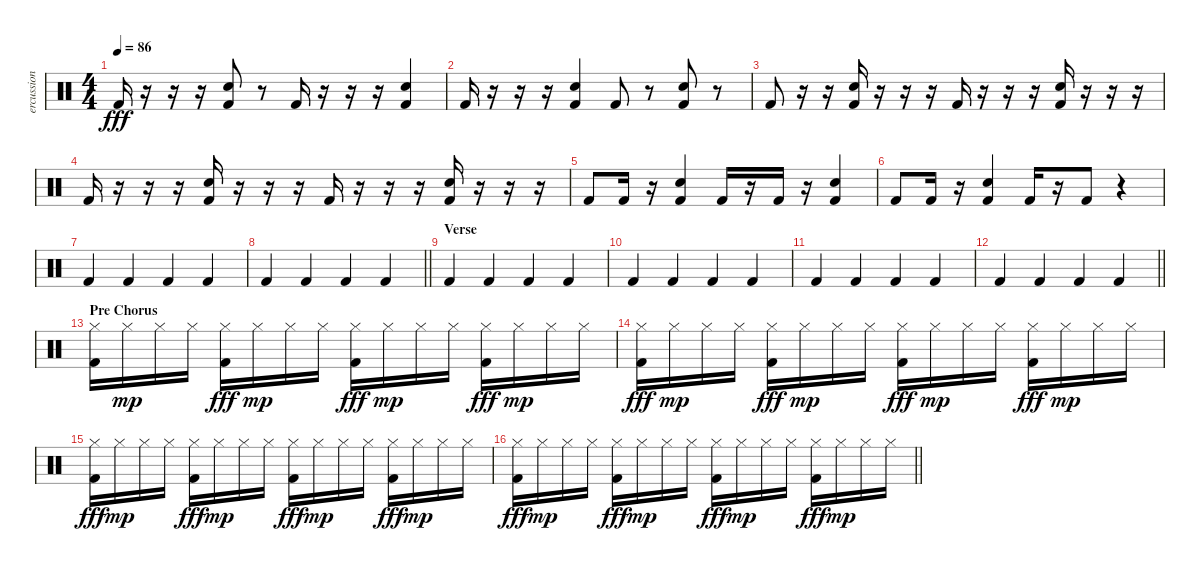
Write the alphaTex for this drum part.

\track ("ercussion" "ercussion") {instrument percussion}
\staff {score}
\articulation defaults
\ts (4 4)
\tempo 86
\clef neutral
\ks c "Kick (hit) 2".16{dy fff}
r.16 r.16 r.16 ("Snare (hit) 2" "Kick (hit) 2").8 r.8 "Kick (hit) 2".16 r.16 r.16 r.16 ("Snare (hit) 2" "Kick (hit) 2").4 |
"Kick (hit) 2".16 r.16 r.16 r.16 ("Snare (hit) 2" "Kick (hit) 2").4 "Kick (hit) 2".8 r.8 ("Snare (hit) 2" "Kick (hit) 2").8 r.8 |
"Kick (hit) 2".8 r.16 r.16 ("Snare (hit) 2" "Kick (hit) 2").16 r.16 r.16 r.16 "Kick (hit) 2".16 r.16 r.16 r.16 ("Snare (hit) 2" "Kick (hit) 2").16 r.16 r.16 r.16 |
"Kick (hit) 2".16 r.16 r.16 r.16 ("Snare (hit) 2" "Kick (hit) 2").16 r.16 r.16 r.16 "Kick (hit) 2".16 r.16 r.16 r.16 ("Snare (hit) 2" "Kick (hit) 2").16 r.16 r.16 r.16 |
"Kick (hit) 2".8 "Kick (hit) 2".16 r.16 ("Snare (hit) 2" "Kick (hit) 2").4 "Kick (hit) 2".16 r.16 "Kick (hit) 2".16 r.16 ("Snare (hit) 2" "Kick (hit) 2").4 |
"Kick (hit) 2".8 "Kick (hit) 2".16 r.16 ("Snare (hit) 2" "Kick (hit) 2").4 "Kick (hit) 2".16 r.16 "Kick (hit) 2".8 r.4 |
"Kick (hit) 2".4 "Kick (hit) 2".4 "Kick (hit) 2".4 "Kick (hit) 2".4 |
\barLineRight lightlight "Kick (hit) 2".4 "Kick (hit) 2".4 "Kick (hit) 2".4 "Kick (hit) 2".4
|
\section ("" "Verse")
"Kick (hit) 2".4 "Kick (hit) 2".4 "Kick (hit) 2".4 "Kick (hit) 2".4 |
"Kick (hit) 2".4 "Kick (hit) 2".4 "Kick (hit) 2".4 "Kick (hit) 2".4 |
"Kick (hit) 2".4 "Kick (hit) 2".4 "Kick (hit) 2".4 "Kick (hit) 2".4 |
\barLineRight lightlight "Kick (hit) 2".4 "Kick (hit) 2".4 "Kick (hit) 2".4 "Kick (hit) 2".4
|
\section ("" "Pre Chorus")
("Hi-Hat (closed)" "Kick (hit) 2").16 "Hi-Hat (closed)".16{dy mp} "Hi-Hat (closed)".16 "Hi-Hat (closed)".16 ("Hi-Hat (closed)" "Kick (hit) 2").16{dy fff} "Hi-Hat (closed)".16{dy mp} "Hi-Hat (closed)".16 "Hi-Hat (closed)".16 ("Hi-Hat (closed)" "Kick (hit) 2").16{dy fff} "Hi-Hat (closed)".16{dy mp} "Hi-Hat (closed)".16 "Hi-Hat (closed)".16 ("Hi-Hat (closed)" "Kick (hit) 2").16{dy fff} "Hi-Hat (closed)".16{dy mp} "Hi-Hat (closed)".16 "Hi-Hat (closed)".16 |
("Hi-Hat (closed)" "Kick (hit) 2").16{dy fff} "Hi-Hat (closed)".16{dy mp} "Hi-Hat (closed)".16 "Hi-Hat (closed)".16 ("Hi-Hat (closed)" "Kick (hit) 2").16{dy fff} "Hi-Hat (closed)".16{dy mp} "Hi-Hat (closed)".16 "Hi-Hat (closed)".16 ("Hi-Hat (closed)" "Kick (hit) 2").16{dy fff} "Hi-Hat (closed)".16{dy mp} "Hi-Hat (closed)".16 "Hi-Hat (closed)".16 ("Hi-Hat (closed)" "Kick (hit) 2").16{dy fff} "Hi-Hat (closed)".16{dy mp} "Hi-Hat (closed)".16 "Hi-Hat (closed)".16 |
("Hi-Hat (closed)" "Kick (hit) 2").16{dy fff} "Hi-Hat (closed)".16{dy mp} "Hi-Hat (closed)".16 "Hi-Hat (closed)".16 ("Hi-Hat (closed)" "Kick (hit) 2").16{dy fff} "Hi-Hat (closed)".16{dy mp} "Hi-Hat (closed)".16 "Hi-Hat (closed)".16 ("Hi-Hat (closed)" "Kick (hit) 2").16{dy fff} "Hi-Hat (closed)".16{dy mp} "Hi-Hat (closed)".16 "Hi-Hat (closed)".16 ("Hi-Hat (closed)" "Kick (hit) 2").16{dy fff} "Hi-Hat (closed)".16{dy mp} "Hi-Hat (closed)".16 "Hi-Hat (closed)".16 |
\barLineRight lightlight
("Hi-Hat (closed)" "Kick (hit) 2").16{dy fff} "Hi-Hat (closed)".16{dy mp} "Hi-Hat (closed)".16 "Hi-Hat (closed)".16 ("Hi-Hat (closed)" "Kick (hit) 2").16{dy fff} "Hi-Hat (closed)".16{dy mp} "Hi-Hat (closed)".16 "Hi-Hat (closed)".16 ("Hi-Hat (closed)" "Kick (hit) 2").16{dy fff} "Hi-Hat (closed)".16{dy mp} "Hi-Hat (closed)".16 "Hi-Hat (closed)".16 ("Hi-Hat (closed)" "Kick (hit) 2").16{dy fff} "Hi-Hat (closed)".16{dy mp} "Hi-Hat (closed)".16 "Hi-Hat (closed)".16
